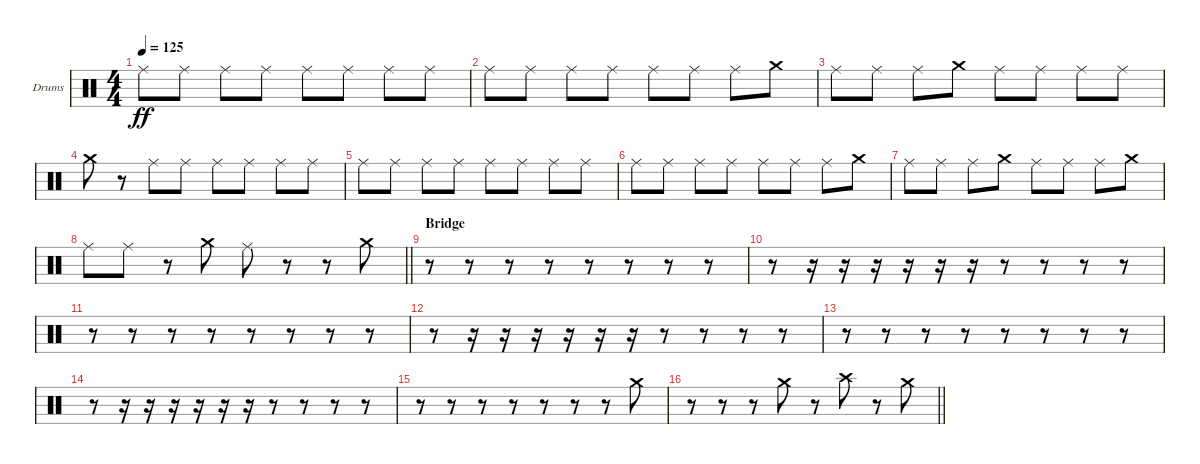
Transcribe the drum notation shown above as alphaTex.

\bracketExtendMode groupsimilarinstruments
\firstSystemTrackNameOrientation horizontal
\otherSystemsTrackNameOrientation horizontal
\track ("Nick Menza" "Drums") {instrument percussion}
\staff {score}
\articulation defaults
\ts (4 4)
\tempo 125
\clef neutral
\scale
0.333333
\ks c "Ride (middle)".8{dy ff} "Ride (middle)".8 "Ride (middle)".8 "Ride (middle)".8 "Ride (middle)".8 "Ride (middle)".8 "Ride (middle)".8 "Ride (middle)".8
|
\scale
0.333333 "Ride (middle)".8 "Ride (middle)".8 "Ride (middle)".8 "Ride (middle)".8 "Ride (middle)".8 "Ride (middle)".8 "Ride (middle)".8 "Crash medium (hit)".8 |
\scale
0.333333 "Ride (middle)".8 "Ride (middle)".8 "Ride (middle)".8 "Crash medium (hit)".8 "Ride (middle)".8 "Ride (middle)".8 "Ride (middle)".8 "Ride (middle)".8 |
\scale
0.333333 "Crash medium (hit)".8 r.8 "Ride (middle)".8 "Ride (middle)".8 "Ride (middle)".8 "Ride (middle)".8 "Ride (middle)".8 "Ride (middle)".8 |
\scale
0.333333 "Ride (middle)".8 "Ride (middle)".8 "Ride (middle)".8 "Ride (middle)".8 "Ride (middle)".8 "Ride (middle)".8 "Ride (middle)".8 "Ride (middle)".8 |
\scale
0.333333 "Ride (middle)".8 "Ride (middle)".8 "Ride (middle)".8 "Ride (middle)".8 "Ride (middle)".8 "Ride (middle)".8 "Ride (middle)".8 "Crash medium (hit)".8 |
\scale
0.333333 "Ride (middle)".8 "Ride (middle)".8 "Ride (middle)".8 "Crash medium (hit)".8 "Ride (middle)".8 "Ride (middle)".8 "Ride (middle)".8 "Crash medium (hit)".8 |
\scale
0.333333
\barLineRight lightlight "Ride (middle)".8 "Ride (middle)".8
r.8 "Crash medium (hit)".8 "Ride (middle)".8 r.8 r.8 "Crash medium (hit)".8 |
\section ("" "Bridge")
\scale
0.333333 r.8 r.8 r.8 r.8 r.8 r.8 r.8 r.8 |
\scale
0.333333 r.8 r.16 r.16 r.16 r.16 r.16 r.16 r.8 r.8 r.8 r.8 |
\scale
0.333333 r.8 r.8 r.8 r.8 r.8 r.8 r.8 r.8 |
\scale
0.333333 r.8 r.16 r.16 r.16 r.16 r.16 r.16 r.8 r.8 r.8 r.8 |
\scale
0.333333 r.8 r.8 r.8 r.8 r.8 r.8 r.8 r.8 |
\scale
0.333333 r.8 r.16 r.16 r.16 r.16 r.16 r.16 r.8 r.8 r.8 r.8 |
\scale
0.333333 r.8 r.8 r.8 r.8 r.8 r.8 r.8 "Crash medium (hit)".8 |
\scale
0.333333
\barLineRight lightlight
r.8 r.8 r.8 "Crash medium (hit)".8 r.8 "Crash high (hit)".8 r.8 "Crash medium (hit)".8
